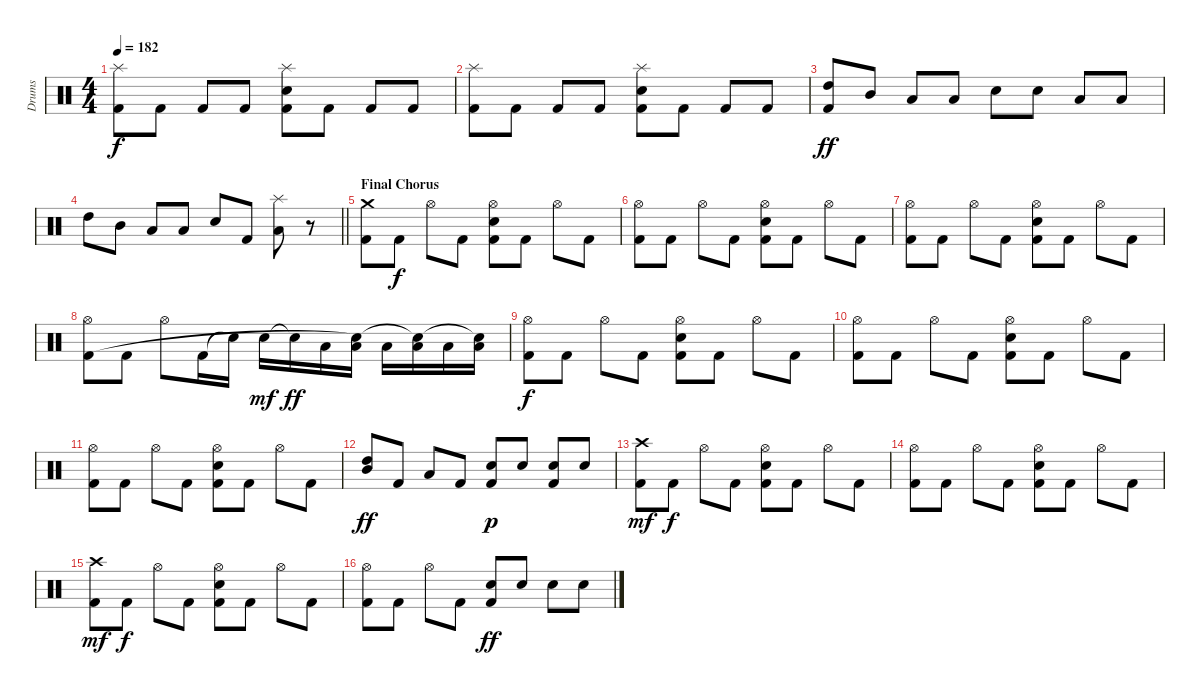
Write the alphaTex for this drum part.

\track ("Drums" "Drums") {instrument percussion}
\staff {score}
\articulation defaults
\ts (4 4)
\tempo 182
\clef neutral
\ks c
("Splash (hit)" "Kick (hit) 2").8{dy f} "Kick (hit) 2".8 "Kick (hit) 2".8 "Kick (hit) 2".8 ("Splash (hit)" "Snare (hit) 2" "Kick (hit) 2").8 "Kick (hit) 2".8 "Kick (hit) 2".8 "Kick (hit) 2".8 |
("Splash (hit)" "Kick (hit) 2").8 "Kick (hit) 2".8 "Kick (hit) 2".8 "Kick (hit) 2".8 ("Splash (hit)" "Snare (hit) 2" "Kick (hit) 2").8 "Kick (hit) 2".8 "Kick (hit) 2".8 "Kick (hit) 2".8 |
("High Tom (hit)" "Kick (hit) 2").8{dy ff} "Mid Tom (hit)".8 "Low Floor Tom (hit)".8 "Low Floor Tom (hit)".8 "Snare (hit) 2".8 "Snare (hit) 2".8 "Low Floor Tom (hit)".8 "Low Floor Tom (hit)".8 |
\barLineRight lightlight "High Tom (hit)".8 "Mid Tom (hit)".8 "Low Floor Tom (hit)".8 "Low Floor Tom (hit)".8 "Snare (hit) 2".8 "Kick (hit) 2".8
("Splash (hit)" "Low Floor Tom (hit)").8 r.8 |
\section ("" "Final Chorus")
("Crash medium (hit)" "Kick (hit) 2").8 "Kick (hit) 2".8{dy f} "Hi-Hat (open)".8 "Kick (hit) 2".8 ("Hi-Hat (open)" "Snare (hit) 2" "Kick (hit) 2").8 "Kick (hit) 2".8 "Hi-Hat (open)".8 "Kick (hit) 2".8 |
("Hi-Hat (open)" "Kick (hit) 2").8 "Kick (hit) 2".8 "Hi-Hat (open)".8 "Kick (hit) 2".8 ("Hi-Hat (open)" "Snare (hit) 2" "Kick (hit) 2").8 "Kick (hit) 2".8 "Hi-Hat (open)".8 "Kick (hit) 2".8 |
("Hi-Hat (open)" "Kick (hit) 2").8 "Kick (hit) 2".8 "Hi-Hat (open)".8 "Kick (hit) 2".8 ("Hi-Hat (open)" "Snare (hit) 2" "Kick (hit) 2").8 "Kick (hit) 2".8 "Hi-Hat (open)".8 "Kick (hit) 2".8 |
("Hi-Hat (open)" "Kick (hit) 2").8 "Kick (hit) 2".8 "Hi-Hat (open)".8 "Kick (hit) 2".16 "Snare (hit)"{t}.16 "Snare (hit) 2".16{dy mf} "Snare (hit)"{t}.16{dy ff} "Low Floor Tom (hit)".16 ("Low Floor Tom (hit)" "Snare (hit)"{t}).16 "Low Floor Tom (hit)".16 ("Low Floor Tom (hit)" "Snare (hit)"{t}).16 "Low Floor Tom (hit)".16 ("Low Floor Tom (hit)" "Snare (hit)"{t}).16 |
("Hi-Hat (open)" "Kick (hit) 2").8{dy f} "Kick (hit) 2".8 "Hi-Hat (open)".8 "Kick (hit) 2".8 ("Hi-Hat (open)" "Snare (hit) 2" "Kick (hit) 2").8 "Kick (hit) 2".8 "Hi-Hat (open)".8 "Kick (hit) 2".8 |
("Hi-Hat (open)" "Kick (hit) 2").8 "Kick (hit) 2".8 "Hi-Hat (open)".8 "Kick (hit) 2".8 ("Hi-Hat (open)" "Snare (hit) 2" "Kick (hit) 2").8 "Kick (hit) 2".8 "Hi-Hat (open)".8 "Kick (hit) 2".8 |
("Hi-Hat (open)" "Kick (hit) 2").8 "Kick (hit) 2".8 "Hi-Hat (open)".8 "Kick (hit) 2".8 ("Hi-Hat (open)" "Snare (hit) 2" "Kick (hit) 2").8 "Kick (hit) 2".8 "Hi-Hat (open)".8 "Kick (hit) 2".8 |
("Mid Tom (hit)" "High Tom (hit)").8{dy ff} "Kick (hit) 2".8 "Low Floor Tom (hit)".8 "Kick (hit) 2".8 ("Snare (hit) 2" "Kick (hit) 2").8{dy p} "Snare (hit) 2".8 ("Snare (hit) 2" "Kick (hit) 2").8 "Snare (hit) 2".8 |
("Crash high (hit)" "Kick (hit) 2").8{dy mf} "Kick (hit) 2".8{dy f} "Hi-Hat (open)".8 "Kick (hit) 2".8 ("Hi-Hat (open)" "Snare (hit) 2" "Kick (hit) 2").8 "Kick (hit) 2".8 "Hi-Hat (open)".8 "Kick (hit) 2".8 |
("Hi-Hat (open)" "Kick (hit) 2").8 "Kick (hit) 2".8 "Hi-Hat (open)".8 "Kick (hit) 2".8 ("Hi-Hat (open)" "Snare (hit) 2" "Kick (hit) 2").8 "Kick (hit) 2".8 "Hi-Hat (open)".8 "Kick (hit) 2".8 |
("Crash high (hit)" "Kick (hit) 2").8{dy mf} "Kick (hit) 2".8{dy f} "Hi-Hat (open)".8 "Kick (hit) 2".8 ("Hi-Hat (open)" "Snare (hit) 2" "Kick (hit) 2").8 "Kick (hit) 2".8 "Hi-Hat (open)".8 "Kick (hit) 2".8 |
("Hi-Hat (open)" "Kick (hit) 2").8 "Kick (hit) 2".8 "Hi-Hat (open)".8 "Kick (hit) 2".8 ("Snare (hit) 2" "Kick (hit) 2").8{dy ff} "Snare (hit) 2".8 "Snare (hit) 2".8 "Snare (hit) 2".8
